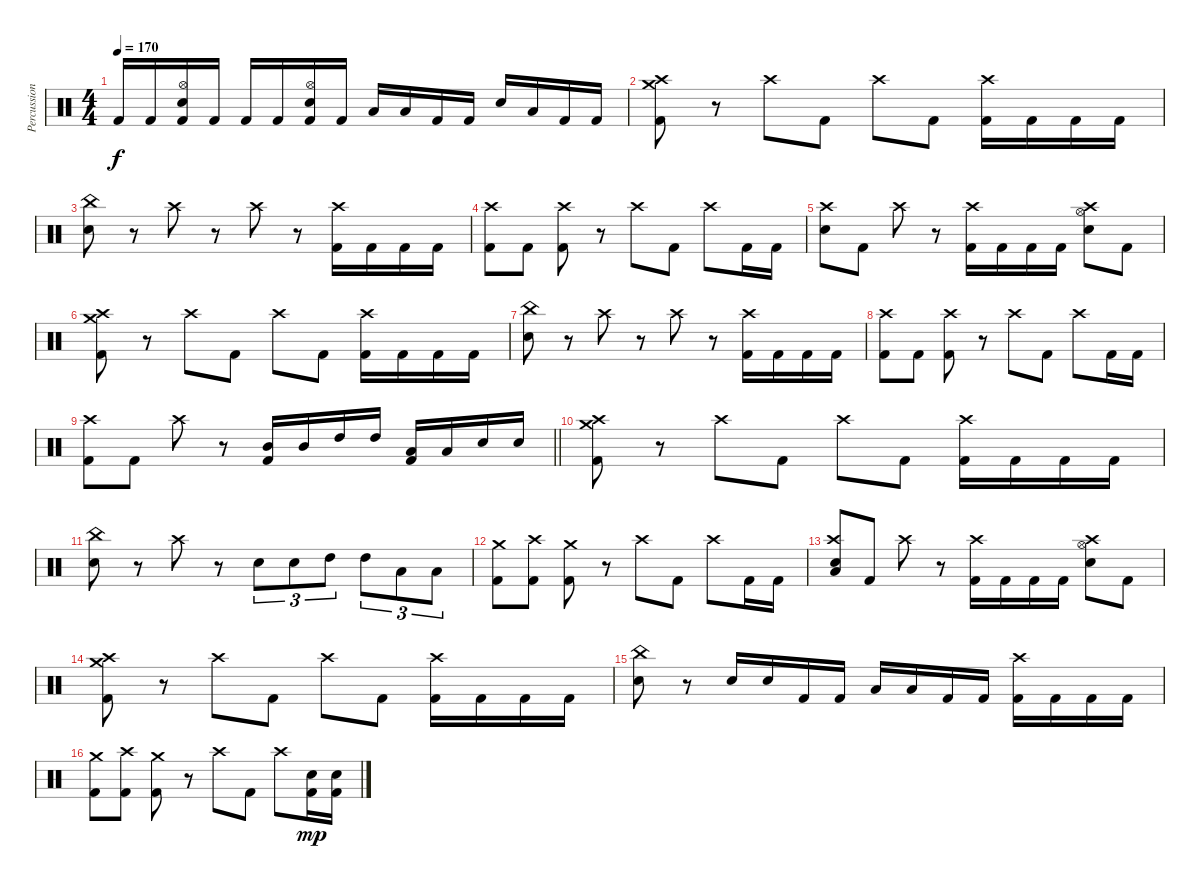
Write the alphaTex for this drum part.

\track ("Percussions" "Percussion") {instrument percussion}
\staff {score}
\articulation defaults
\ts (4 4)
\tempo 170
\clef neutral
\ks c "Kick (hit) 2".16{dy f} "Kick (hit) 2".16
("Hi-Hat (open)" "Electric Snare (hit)" "Kick (hit) 2").16 "Kick (hit) 2".16 "Kick (hit) 2".16 "Kick (hit) 2".16 ("Hi-Hat (open)" "Electric Snare (hit)" "Kick (hit) 2").16 "Kick (hit) 2".16 "Low Tom (hit)".16 "Low Tom (hit)".16 "Kick (hit) 2".16 "Kick (hit) 2".16 "Electric Snare (hit)".16 "Low Tom (hit)".16 "Kick (hit) 2".16 "Kick (hit) 2".16 |
("Crash high (hit)" "Crash medium (hit)" "Kick (hit) 2").8 r.8 "Crash high (hit)".8 "Kick (hit) 2".8 "Crash high (hit)".8 "Kick (hit) 2".8 ("Crash high (hit)" "Kick (hit) 2").16 "Kick (hit) 2".16 "Kick (hit) 2".16 "Kick (hit) 2".16 |
("China (hit)" "Electric Snare (hit)").8 r.8 "Crash high (hit)".8 r.8 "Crash high (hit)".8 r.8 ("Crash high (hit)" "Kick (hit) 2").16 "Kick (hit) 2".16 "Kick (hit) 2".16 "Kick (hit) 2".16 |
("Crash high (hit)" "Kick (hit) 2").8 "Kick (hit) 2".8 ("Crash high (hit)" "Kick (hit) 2").8 r.8 "Crash high (hit)".8 "Kick (hit) 2".8 "Crash high (hit)".8 "Kick (hit) 2".16 "Kick (hit) 2".16 |
("Crash high (hit)" "Electric Snare (hit)").8 "Kick (hit) 2".8 "Crash high (hit)".8 r.8 ("Crash high (hit)" "Kick (hit) 2").16 "Kick (hit) 2".16 "Kick (hit) 2".16 "Kick (hit) 2".16 ("Crash high (hit)" "Hi-Hat (open)" "Electric Snare (hit)").8 "Kick (hit) 2".8 |
("Crash high (hit)" "Crash medium (hit)" "Kick (hit) 2").8 r.8 "Crash high (hit)".8 "Kick (hit) 2".8 "Crash high (hit)".8 "Kick (hit) 2".8 ("Crash high (hit)" "Kick (hit) 2").16 "Kick (hit) 2".16 "Kick (hit) 2".16 "Kick (hit) 2".16 |
("China (hit)" "Electric Snare (hit)").8 r.8 "Crash high (hit)".8 r.8 "Crash high (hit)".8 r.8 ("Crash high (hit)" "Kick (hit) 2").16 "Kick (hit) 2".16 "Kick (hit) 2".16 "Kick (hit) 2".16 |
("Crash high (hit)" "Kick (hit) 2").8 "Kick (hit) 2".8 ("Crash high (hit)" "Kick (hit) 2").8 r.8 "Crash high (hit)".8 "Kick (hit) 2".8 "Crash high (hit)".8 "Kick (hit) 2".16 "Kick (hit) 2".16 |
\barLineRight lightlight
("Crash high (hit)" "Kick (hit) 2").8 "Kick (hit) 2".8 "Crash high (hit)".8 r.8 ("Mid Tom (hit)" "Kick (hit) 2").16 "Mid Tom (hit)".16 "High Tom (hit)".16 "High Tom (hit)".16 ("Low Tom (hit)" "Kick (hit) 2").16 "Low Tom (hit)".16 "Electric Snare (hit)".16 "Electric Snare (hit)".16 |
("Crash high (hit)" "Crash medium (hit)" "Kick (hit) 2").8 r.8 "Crash high (hit)".8 "Kick (hit) 2".8 "Crash high (hit)".8 "Kick (hit) 2".8 ("Crash high (hit)" "Kick (hit) 2").16 "Kick (hit) 2".16 "Kick (hit) 2".16 "Kick (hit) 2".16 |
("China (hit)" "Electric Snare (hit)").8 r.8 "Crash high (hit)".8 r.8 "Electric Snare (hit)".8{tu (3 2)} "Electric Snare (hit)".8{tu (3 2)} "High Tom (hit)".8{tu (3 2)} "High Tom (hit)".8{tu (3 2)} "Low Floor Tom (hit)".8{tu (3 2)} "Low Floor Tom (hit)".8{tu (3 2)} |
("Crash medium (hit)" "Kick (hit) 2").8 ("Crash high (hit)" "Kick (hit) 2").8 ("Crash medium (hit)" "Kick (hit) 2").8 r.8 "Crash high (hit)".8 "Kick (hit) 2".8 "Crash high (hit)".8 "Kick (hit) 2".16 "Kick (hit) 2".16 |
("Crash high (hit)" "Low Floor Tom (hit)" "Electric Snare (hit)").8 "Kick (hit) 2".8 "Crash high (hit)".8 r.8 ("Crash high (hit)" "Kick (hit) 2").16 "Kick (hit) 2".16 "Kick (hit) 2".16 "Kick (hit) 2".16 ("Crash high (hit)" "Electric Snare (hit)" "Hi-Hat (open)").8 "Kick (hit) 2".8 |
("Crash high (hit)" "Crash medium (hit)" "Kick (hit) 2").8 r.8 "Crash high (hit)".8 "Kick (hit) 2".8 "Crash high (hit)".8 "Kick (hit) 2".8 ("Crash high (hit)" "Kick (hit) 2").16 "Kick (hit) 2".16 "Kick (hit) 2".16 "Kick (hit) 2".16 |
("China (hit)" "Electric Snare (hit)").8 r.8 "Electric Snare (hit)".16 "Electric Snare (hit)".16 "Kick (hit) 2".16 "Kick (hit) 2".16 "Low Floor Tom (hit)".16 "Low Floor Tom (hit)".16 "Kick (hit) 2".16 "Kick (hit) 2".16 ("Crash high (hit)" "Kick (hit) 2").16 "Kick (hit) 2".16 "Kick (hit) 2".16 "Kick (hit) 2".16 |
("Crash medium (hit)" "Kick (hit) 2").8 ("Crash high (hit)" "Kick (hit) 2").8 ("Crash medium (hit)" "Kick (hit) 2").8 r.8 "Crash high (hit)".8 "Kick (hit) 2".8 "Crash high (hit)".8 ("Electric Snare (hit)" "Kick (hit) 2").16{dy mp} ("Electric Snare (hit)" "Kick (hit) 2").16
